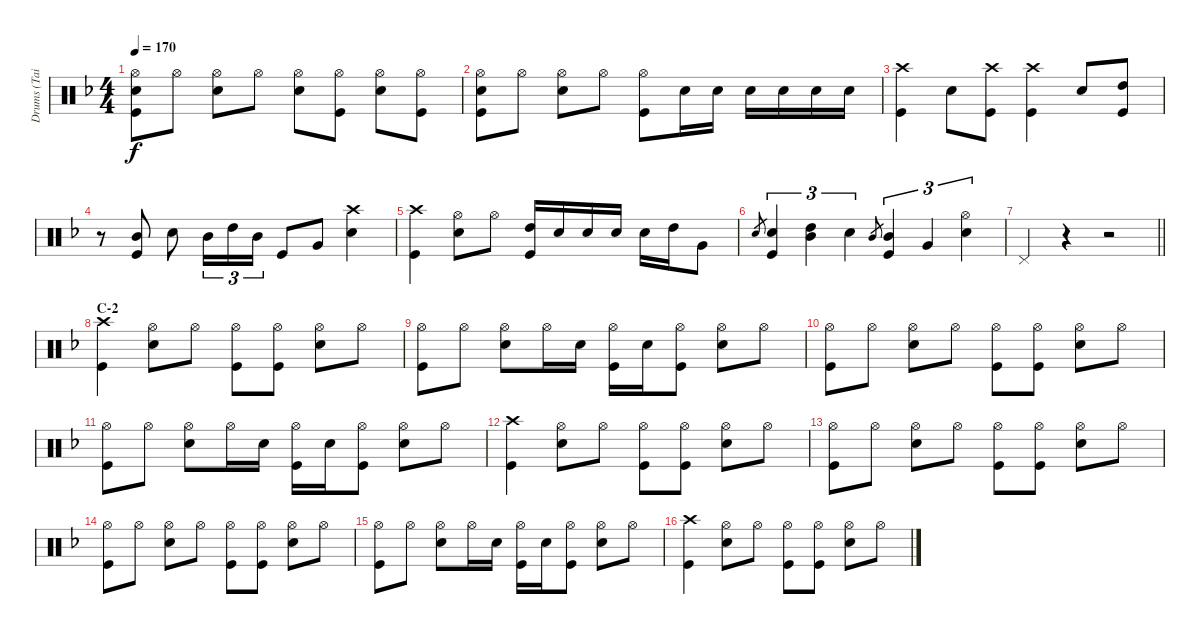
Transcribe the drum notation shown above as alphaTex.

\track ("Drums (Tainaka Ritsu)" "Drums (Tai") {instrument percussion}
\staff {score}
\articulation defaults
\ts (4 4)
\tempo 170
\clef neutral
\ks f
("Hi-Hat (open)" "Snare (hit) 2" "Kick (hit)").8{dy f} "Hi-Hat (open)".8 ("Hi-Hat (open)" "Snare (hit) 2").8 "Hi-Hat (open)".8 ("Hi-Hat (open)" "Snare (hit) 2").8 ("Hi-Hat (open)" "Kick (hit)").8 ("Hi-Hat (open)" "Snare (hit) 2").8 ("Hi-Hat (open)" "Kick (hit)").8 |
("Hi-Hat (open)" "Snare (hit) 2" "Kick (hit)").8 "Hi-Hat (open)".8 ("Hi-Hat (open)" "Snare (hit) 2").8 "Hi-Hat (open)".8 ("Hi-Hat (open)" "Kick (hit)").8 "Snare (hit) 2".16 "Snare (hit) 2".16 "Snare (hit) 2".16 "Snare (hit) 2".16 "Snare (hit) 2".16 "Snare (hit) 2".16 |
("Crash high (hit)" "Kick (hit)").4 "Snare (hit) 2".8 ("Crash high (hit)" "Kick (hit)").8 ("Crash high (hit)" "Kick (hit)").4 "Snare (hit) 2".8 ("High Tom (hit)" "Kick (hit)").8 |
r.8 ("Mid Tom (hit)" "Kick (hit)").8 "Snare (hit) 2".8 "Mid Tom (hit)".16{tu (3 2)} "High Tom (hit)".16{tu (3 2)} "Mid Tom (hit)".16{tu (3 2)} "Kick (hit)".8 "Very Low Tom (hit)".8 ("Crash high (hit)" "Snare (hit) 2").4 |
("Crash high (hit)" "Kick (hit)").4 ("Hi-Hat (open)" "Snare (hit) 2").8 "Hi-Hat (open)".8 ("High Tom (hit)" "Kick (hit)").16 "Snare (hit) 2".16 "Snare (hit) 2".16 "Snare (hit) 2".16 "Snare (hit) 2".16 "High Tom (hit)".16 "Very Low Tom (hit)".8 |
"Snare (hit) 2".8{gr} ("Snare (hit) 2" "Kick (hit)").4{tu (3 2)} ("High Tom (hit)" "Mid Tom (hit)").4{tu (3 2)} "Snare (hit) 2".4{tu (3 2)} "Mid Tom (hit)".8{gr} ("Mid Tom (hit)" "Kick (hit)").4{tu (3 2)} "Very Low Tom (hit)".4{tu (3 2)} ("Hi-Hat (open)" "Snare (hit) 2").4{tu (3 2)} |
\barLineRight lightlight "Pedal Hi-Hat (hit)".4
r.4 r.2 |
\section ("" "C-2")
("Crash high (hit)" "Kick (hit)").4 ("Hi-Hat (open)" "Snare (hit) 2").8 "Hi-Hat (open)".8 ("Hi-Hat (open)" "Kick (hit)").8 ("Hi-Hat (open)" "Kick (hit)").8 ("Hi-Hat (open)" "Snare (hit) 2").8 "Hi-Hat (open)".8 |
("Hi-Hat (open)" "Kick (hit)").8 "Hi-Hat (open)".8 ("Hi-Hat (open)" "Snare (hit) 2").8 "Hi-Hat (open)".16 "Snare (hit) 2".16 ("Hi-Hat (open)" "Kick (hit)").16 "Snare (hit) 2".16 ("Hi-Hat (open)" "Kick (hit)").8 ("Hi-Hat (open)" "Snare (hit) 2").8 "Hi-Hat (open)".8 |
("Hi-Hat (open)" "Kick (hit)").8 "Hi-Hat (open)".8 ("Hi-Hat (open)" "Snare (hit) 2").8 "Hi-Hat (open)".8 ("Hi-Hat (open)" "Kick (hit)").8 ("Hi-Hat (open)" "Kick (hit)").8 ("Hi-Hat (open)" "Snare (hit) 2").8 "Hi-Hat (open)".8 |
("Hi-Hat (open)" "Kick (hit)").8 "Hi-Hat (open)".8 ("Hi-Hat (open)" "Snare (hit) 2").8 "Hi-Hat (open)".16 "Snare (hit) 2".16 ("Hi-Hat (open)" "Kick (hit)").16 "Snare (hit) 2".16 ("Hi-Hat (open)" "Kick (hit)").8 ("Hi-Hat (open)" "Snare (hit) 2").8 "Hi-Hat (open)".8 |
("Crash high (hit)" "Kick (hit)").4 ("Hi-Hat (open)" "Snare (hit) 2").8 "Hi-Hat (open)".8 ("Hi-Hat (open)" "Kick (hit)").8 ("Hi-Hat (open)" "Kick (hit)").8 ("Hi-Hat (open)" "Snare (hit) 2").8 "Hi-Hat (open)".8 |
("Hi-Hat (open)" "Kick (hit)").8 "Hi-Hat (open)".8 ("Hi-Hat (open)" "Snare (hit) 2").8 "Hi-Hat (open)".8 ("Hi-Hat (open)" "Kick (hit)").8 ("Hi-Hat (open)" "Kick (hit)").8 ("Hi-Hat (open)" "Snare (hit) 2").8 "Hi-Hat (open)".8 |
("Hi-Hat (open)" "Kick (hit)").8 "Hi-Hat (open)".8 ("Hi-Hat (open)" "Snare (hit) 2").8 "Hi-Hat (open)".8 ("Hi-Hat (open)" "Kick (hit)").8 ("Hi-Hat (open)" "Kick (hit)").8 ("Hi-Hat (open)" "Snare (hit) 2").8 "Hi-Hat (open)".8 |
("Hi-Hat (open)" "Kick (hit)").8 "Hi-Hat (open)".8 ("Hi-Hat (open)" "Snare (hit) 2").8 "Hi-Hat (open)".16 "Snare (hit) 2".16 ("Hi-Hat (open)" "Kick (hit)").16 "Snare (hit) 2".16 ("Hi-Hat (open)" "Kick (hit)").8 ("Hi-Hat (open)" "Snare (hit) 2").8 "Hi-Hat (open)".8 |
("Crash high (hit)" "Kick (hit)").4 ("Hi-Hat (open)" "Snare (hit) 2").8 "Hi-Hat (open)".8 ("Hi-Hat (open)" "Kick (hit)").8 ("Hi-Hat (open)" "Kick (hit)").8 ("Hi-Hat (open)" "Snare (hit) 2").8 "Hi-Hat (open)".8
